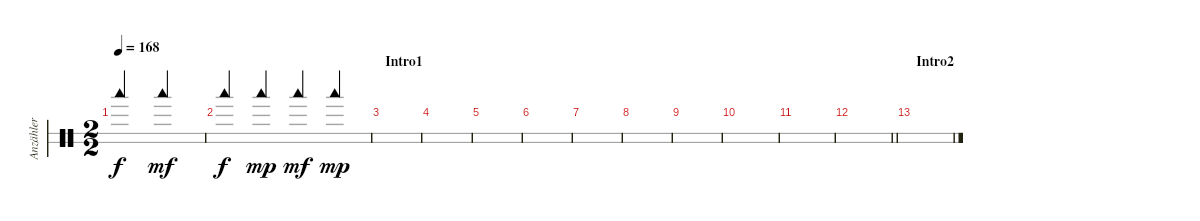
\bracketExtendMode groupsimilarinstruments
\multiTrackTrackNamePolicy hidden
\otherSystemsTrackNameOrientation horizontal
\track ("Anzähler" "Anzähler") {instrument percussion}
\staff {score 2}
\articulation defaults
\ts (2 2)
\tempo 168
\clef neutral
\scale
0.47191
\ks c "Woodblock low (hit)".2{dy f beam Up} "Woodblock low (hit)".2{dy mf beam Up}
|
\scale
0.264045 "Woodblock low (hit)".4{dy f beam Up} "Woodblock low (hit)".4{dy mp beam Up} "Woodblock low (hit)".4{dy mf beam Up} "Woodblock low (hit)".4{dy mp beam Up} |
\section ("" "Intro1")
\scale
0.264045 |
\scale
0.333333 |
\scale
0.333333 |
\scale
0.333333 |
\scale
0.333333 |
\scale
0.333333 |
\scale
0.333333 |
\scale
0.333333 |
\scale
0.333333 |
\scale
0.333333
\barLineRight lightlight
|
\section ("" "Intro2")
\scale
0.333333 |
\scale
0.333333 |
\scale
0.333333 |
\scale
0.333333
